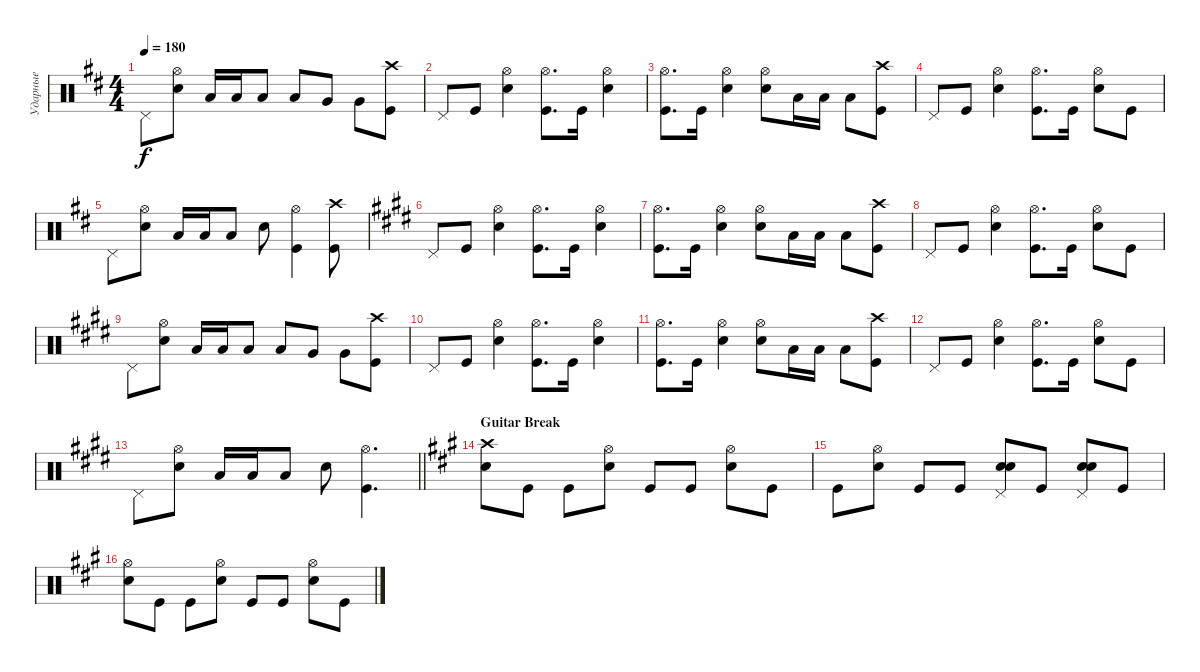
\track ("Ударные" "Ударные") {instrument percussion}
\staff {score}
\articulation defaults
\ts (4 4)
\tempo 180
\clef neutral
\ks bminor "Pedal Hi-Hat (hit)".8{dy f}
("Snare (hit) 2" "Hi-Hat (open)").8 "Low Tom (hit)".16 "Low Tom (hit)".16 "Low Tom (hit)".8 "Low Tom (hit)".8 "Very Low Tom (hit)".8 "Very Low Tom (hit)".8 ("Kick (hit)" "Crash high (hit)").8 |
"Pedal Hi-Hat (hit)".8 "Kick (hit)".8 ("Hi-Hat (open)" "Snare (hit) 2").4 ("Kick (hit)" "Hi-Hat (open)").8{d} "Kick (hit)".16 ("Snare (hit) 2" "Hi-Hat (open)").4 |
("Hi-Hat (open)" "Kick (hit)").8{d} "Kick (hit)".16 ("Hi-Hat (open)" "Snare (hit) 2").4 ("Snare (hit) 2" "Hi-Hat (open)").8 "Low Tom (hit)".16 "Low Tom (hit)".16 "Low Tom (hit)".8 ("Kick (hit)" "Crash high (hit)").8 |
"Pedal Hi-Hat (hit)".8 "Kick (hit)".8 ("Hi-Hat (open)" "Snare (hit) 2").4 ("Kick (hit)" "Hi-Hat (open)").8{d} "Kick (hit)".16 ("Snare (hit) 2" "Hi-Hat (open)").8 "Kick (hit)".8 |
"Pedal Hi-Hat (hit)".8 ("Snare (hit) 2" "Hi-Hat (open)").8 "Low Tom (hit)".16 "Low Tom (hit)".16 "Low Tom (hit)".8 "Snare (hit) 2".8 ("Kick (hit)" "Hi-Hat (open)").4 ("Kick (hit)" "Crash high (hit)").8 |
\ks c#minor "Pedal Hi-Hat (hit)".8 "Kick (hit)".8
("Hi-Hat (open)" "Snare (hit) 2").4 ("Kick (hit)" "Hi-Hat (open)").8{d} "Kick (hit)".16 ("Snare (hit) 2" "Hi-Hat (open)").4 |
("Hi-Hat (open)" "Kick (hit)").8{d} "Kick (hit)".16 ("Hi-Hat (open)" "Snare (hit) 2").4 ("Snare (hit) 2" "Hi-Hat (open)").8 "Low Tom (hit)".16 "Low Tom (hit)".16 "Low Tom (hit)".8 ("Kick (hit)" "Crash high (hit)").8 |
"Pedal Hi-Hat (hit)".8 "Kick (hit)".8 ("Hi-Hat (open)" "Snare (hit) 2").4 ("Kick (hit)" "Hi-Hat (open)").8{d} "Kick (hit)".16 ("Snare (hit) 2" "Hi-Hat (open)").8 "Kick (hit)".8 |
"Pedal Hi-Hat (hit)".8 ("Snare (hit) 2" "Hi-Hat (open)").8 "Low Tom (hit)".16 "Low Tom (hit)".16 "Low Tom (hit)".8 "Low Tom (hit)".8 "Very Low Tom (hit)".8 "Very Low Tom (hit)".8 ("Kick (hit)" "Crash high (hit)").8 |
"Pedal Hi-Hat (hit)".8 "Kick (hit)".8 ("Hi-Hat (open)" "Snare (hit) 2").4 ("Kick (hit)" "Hi-Hat (open)").8{d} "Kick (hit)".16 ("Snare (hit) 2" "Hi-Hat (open)").4 |
("Hi-Hat (open)" "Kick (hit)").8{d} "Kick (hit)".16 ("Hi-Hat (open)" "Snare (hit) 2").4 ("Snare (hit) 2" "Hi-Hat (open)").8 "Low Tom (hit)".16 "Low Tom (hit)".16 "Low Tom (hit)".8 ("Kick (hit)" "Crash high (hit)").8 |
"Pedal Hi-Hat (hit)".8 "Kick (hit)".8 ("Hi-Hat (open)" "Snare (hit) 2").4 ("Kick (hit)" "Hi-Hat (open)").8{d} "Kick (hit)".16 ("Snare (hit) 2" "Hi-Hat (open)").8 "Kick (hit)".8 |
\barLineRight lightlight "Pedal Hi-Hat (hit)".8
("Snare (hit) 2" "Hi-Hat (open)").8 "Low Tom (hit)".16 "Low Tom (hit)".16 "Low Tom (hit)".8 "Snare (hit) 2".8 ("Kick (hit)" "Hi-Hat (open)").4{d} |
\section ("" "Guitar Break")
\ks f#minor
("Snare (hit) 2" "Crash high (hit)").8 "Kick (hit)".8 "Kick (hit)".8 ("Snare (hit) 2" "Hi-Hat (open)").8 "Kick (hit)".8 "Kick (hit)".8 ("Snare (hit) 2" "Hi-Hat (open)").8 "Kick (hit)".8 |
"Kick (hit)".8 ("Snare (hit) 2" "Hi-Hat (open)").8 "Kick (hit)".8 "Kick (hit)".8 ("Snare (hit) 2" "Snare (hit) 2" "Pedal Hi-Hat (hit)").8{bd 240} "Kick (hit)".8 ("Snare (hit) 2" "Snare (hit) 2" "Pedal Hi-Hat (hit)").8{bd 240} "Kick (hit)".8 |
("Snare (hit) 2" "Hi-Hat (open)").8 "Kick (hit)".8 "Kick (hit)".8 ("Snare (hit) 2" "Hi-Hat (open)").8 "Kick (hit)".8 "Kick (hit)".8 ("Snare (hit) 2" "Hi-Hat (open)").8 "Kick (hit)".8
